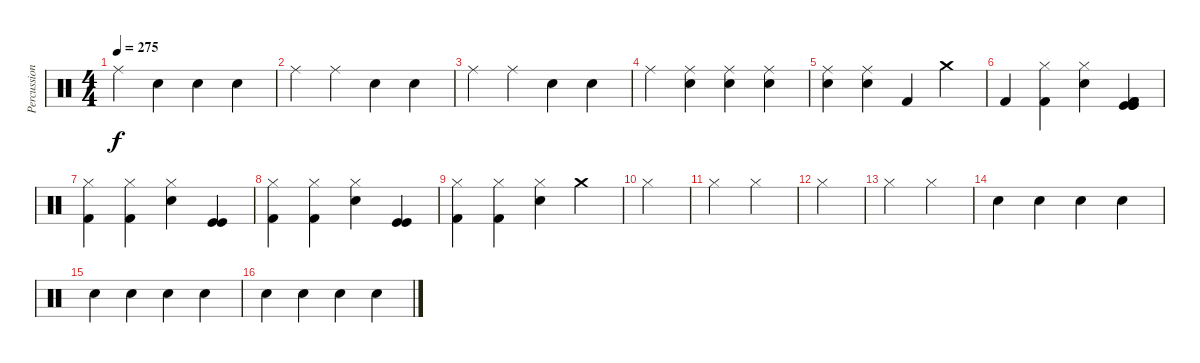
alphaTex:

\track ("Percussion" "Percussion") {instrument percussion}
\staff {score}
\articulation defaults
\ts (4 4)
\tempo 275
\clef neutral
\ks c "Ride (middle)".4{dy f} "Snare (hit)".4 "Snare (hit)".4 "Snare (hit)".4
|
"Ride (middle)".4 "Ride (middle)".4 "Snare (hit)".4 "Snare (hit)".4 |
"Ride (middle)".4 "Ride (middle)".4 "Snare (hit)".4 "Snare (hit)".4 |
"Ride (middle)".4 ("Ride (middle)" "Electric Snare (hit)").4 ("Ride (middle)" "Electric Snare (hit)").4 ("Ride (middle)" "Electric Snare (hit)").4 |
("Ride (middle)" "Electric Snare (hit)").4 ("Ride (middle)" "Electric Snare (hit)").4 "Kick (hit) 2".4 "Crash medium (hit)".4 |
"Kick (hit) 2".4 ("Kick (hit) 2" "Hi-Hat (closed)").4 ("Electric Snare (hit)" "Hi-Hat (closed)").4 ("Kick (hit) 2" "Kick (hit) 2" "Kick (hit)" "Kick (hit)" "Kick (hit)").4 |
("Kick (hit) 2" "Hi-Hat (closed)").4 ("Kick (hit) 2" "Hi-Hat (closed)").4 ("Electric Snare (hit)" "Hi-Hat (closed)").4 ("Kick (hit)" "Kick (hit)").4 |
("Kick (hit) 2" "Hi-Hat (closed)").4 ("Kick (hit) 2" "Hi-Hat (closed)").4 ("Electric Snare (hit)" "Hi-Hat (closed)").4 ("Kick (hit)" "Kick (hit)").4 |
("Kick (hit) 2" "Hi-Hat (closed)").4 ("Kick (hit) 2" "Hi-Hat (closed)").4 ("Electric Snare (hit)" "Hi-Hat (closed)").4 "Crash medium (hit)".4 |
"Hi-Hat (closed)".4 |
"Hi-Hat (closed)".4 "Hi-Hat (closed)".4 |
"Hi-Hat (closed)".4 |
"Hi-Hat (closed)".4 "Hi-Hat (closed)".4 |
"Electric Snare (hit)".4 "Electric Snare (hit)".4 "Electric Snare (hit)".4 "Electric Snare (hit)".4 |
"Electric Snare (hit)".4 "Electric Snare (hit)".4 "Electric Snare (hit)".4 "Electric Snare (hit)".4 |
"Electric Snare (hit)".4 "Electric Snare (hit)".4 "Electric Snare (hit)".4 "Electric Snare (hit)".4
